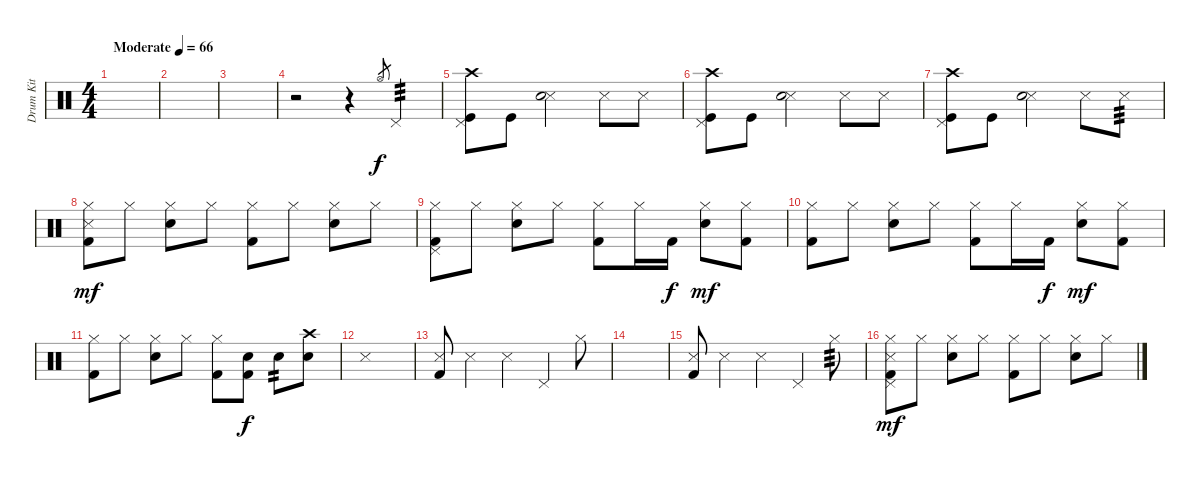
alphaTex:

\track ("Drum Kit" "Drum Kit") {instrument percussion}
\staff {score}
\articulation defaults
\ts (4 4)
\tempo (66 "Moderate")
\clef neutral
\ks c
|
|
|
r.2 r.4 "Hi-Hat (open)".8{gr} "Pedal Hi-Hat (hit)".4{tp 3} |
("Pedal Hi-Hat (hit)" "Kick (hit)" "Crash high (hit)").8 "Kick (hit)".8{dy f} ("Snare (side stick) 3" "Snare (hit) 2").2 "Snare (side stick) 3".8 "Snare (side stick) 3".8 |
("Pedal Hi-Hat (hit)" "Kick (hit)" "Crash high (hit)").8 "Kick (hit)".8 ("Snare (side stick) 3" "Snare (hit) 2").2 "Snare (side stick) 3".8 "Snare (side stick) 3".8 |
("Pedal Hi-Hat (hit)" "Kick (hit)" "Crash high (hit)").8 "Kick (hit)".8 ("Snare (side stick) 3" "Snare (hit) 2").2 "Snare (side stick) 3".8 "Snare (side stick) 3".8{tp 3} |
("Hi-Hat (closed)" "Snare (side stick) 3" "Kick (hit) 2").8{dy mf} "Hi-Hat (closed)".8 ("Hi-Hat (closed)" "Snare (hit) 2").8 "Hi-Hat (closed)".8 ("Hi-Hat (closed)" "Kick (hit) 2").8 "Hi-Hat (closed)".8 ("Hi-Hat (closed)" "Snare (hit) 2").8 "Hi-Hat (closed)".8 |
("Hi-Hat (closed)" "Pedal Hi-Hat (hit)" "Kick (hit) 2").8 "Hi-Hat (closed)".8 ("Hi-Hat (closed)" "Snare (hit) 2").8 "Hi-Hat (closed)".8 ("Hi-Hat (closed)" "Kick (hit) 2").8 "Hi-Hat (closed)".16 "Kick (hit) 2".16{dy f} ("Hi-Hat (closed)" "Snare (hit) 2").8{dy mf} ("Hi-Hat (closed)" "Kick (hit) 2").8 |
("Hi-Hat (closed)" "Kick (hit) 2").8 "Hi-Hat (closed)".8 ("Hi-Hat (closed)" "Snare (hit) 2").8 "Hi-Hat (closed)".8 ("Hi-Hat (closed)" "Kick (hit) 2").8 "Hi-Hat (closed)".16 "Kick (hit) 2".16{dy f} ("Hi-Hat (closed)" "Snare (hit) 2").8{dy mf} ("Hi-Hat (closed)" "Kick (hit) 2").8 |
("Hi-Hat (closed)" "Kick (hit) 2").8 "Hi-Hat (closed)".8 ("Hi-Hat (closed)" "Snare (hit) 2").8 "Hi-Hat (closed)".8 ("Hi-Hat (closed)" "Kick (hit) 2").8 ("Kick (hit) 2" "Snare (hit) 2").8{dy f} "Snare (hit) 2".8{tp 2} ("Snare (hit) 2" "Crash high (hit)").8 |
"Snare (side stick) 3".1 |
("Snare (side stick) 3" "Kick (hit) 2").8 "Snare (side stick) 3".4 "Snare (side stick) 3".4 "Pedal Hi-Hat (hit)".4 "Hi-Hat (closed)".8 |
|
("Snare (side stick) 3" "Kick (hit) 2").8 "Snare (side stick) 3".4 "Snare (side stick) 3".4 "Pedal Hi-Hat (hit)".4 "Hi-Hat (closed)".8{tp 3} |
("Pedal Hi-Hat (hit)" "Hi-Hat (closed)" "Snare (side stick) 3" "Kick (hit) 2").8{dy mf} "Hi-Hat (closed)".8 ("Hi-Hat (closed)" "Snare (hit) 2").8 "Hi-Hat (closed)".8 ("Hi-Hat (closed)" "Kick (hit) 2").8 "Hi-Hat (closed)".8 ("Hi-Hat (closed)" "Snare (hit) 2").8 "Hi-Hat (closed)".8
